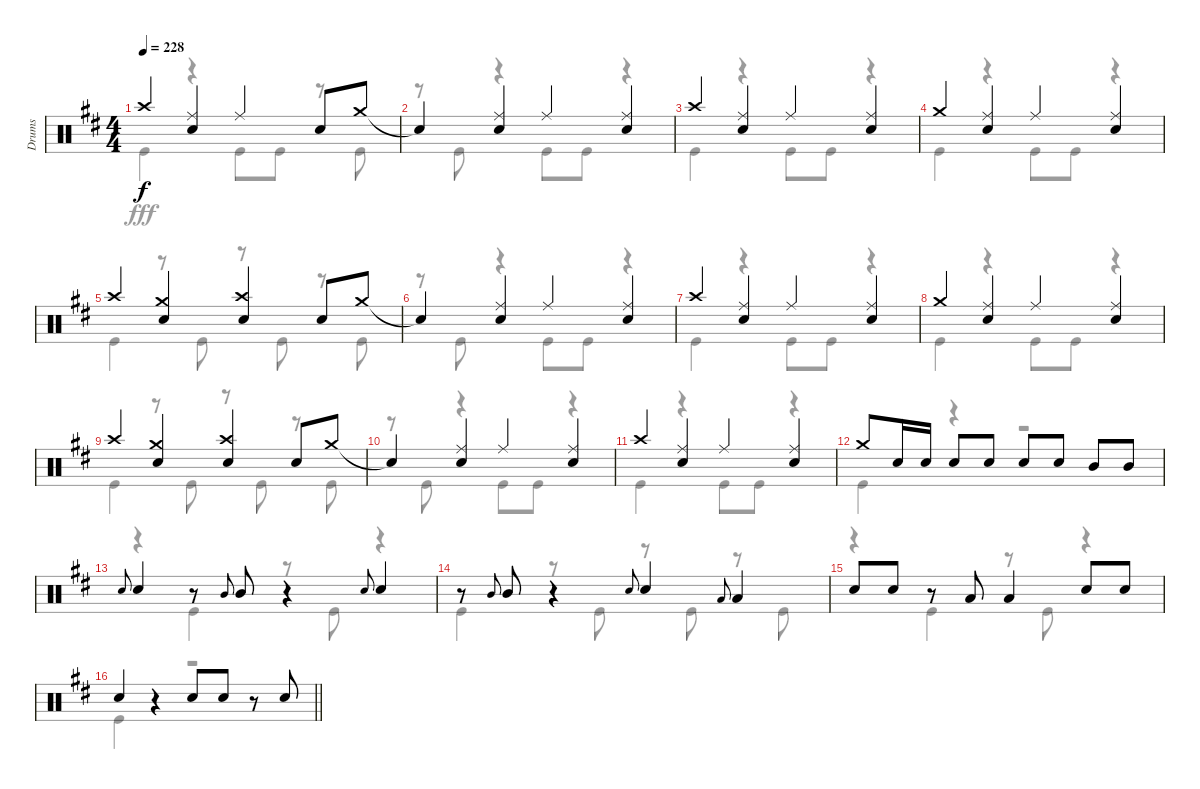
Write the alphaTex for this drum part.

\track ("Drums" "Drums") {instrument percussion}
\staff {score}
\articulation defaults
\voice
\ts (4 4)
\tempo 228
\clef neutral
\ks d "Crash high (hit)".4{dy f}
("Ride (middle)" "Snare (hit) 2").4 "Ride (middle)".4 "Snare (hit) 2".8 "Crash medium (hit)".8 |
"Snare (hit)"{t}.4 ("Ride (middle)" "Snare (hit) 2").4 "Ride (middle)".4 ("Ride (middle)" "Snare (hit) 2").4 |
"Crash high (hit)".4 ("Ride (middle)" "Snare (hit) 2").4 "Ride (middle)".4 ("Ride (middle)" "Snare (hit) 2").4 |
"Crash medium (hit)".4 ("Ride (middle)" "Snare (hit) 2").4 "Ride (middle)".4 ("Ride (middle)" "Snare (hit) 2").4 |
"Crash high (hit)".4 ("Crash medium (hit)" "Snare (hit) 2").4 ("Crash high (hit)" "Snare (hit) 2").4 "Snare (hit) 2".8 "Crash medium (hit)".8 |
"Snare (hit)"{t}.4 ("Ride (middle)" "Snare (hit) 2").4 "Ride (middle)".4 ("Ride (middle)" "Snare (hit) 2").4 |
"Crash high (hit)".4 ("Ride (middle)" "Snare (hit) 2").4 "Ride (middle)".4 ("Ride (middle)" "Snare (hit) 2").4 |
"Crash medium (hit)".4 ("Ride (middle)" "Snare (hit) 2").4 "Ride (middle)".4 ("Ride (middle)" "Snare (hit) 2").4 |
"Crash high (hit)".4 ("Crash medium (hit)" "Snare (hit) 2").4 ("Crash high (hit)" "Snare (hit) 2").4 "Snare (hit) 2".8 "Crash medium (hit)".8 |
"Snare (hit)"{t}.4 ("Ride (middle)" "Snare (hit) 2").4 "Ride (middle)".4 ("Ride (middle)" "Snare (hit) 2").4 |
"Crash high (hit)".4 ("Ride (middle)" "Snare (hit) 2").4 "Ride (middle)".4 ("Ride (middle)" "Snare (hit) 2").4 |
"Crash medium (hit)".8 "Snare (hit) 2".16 "Snare (hit) 2".16 "Snare (hit) 2".8 "Snare (hit) 2".8 "Snare (hit) 2".8 "Snare (hit) 2".8 "Mid Tom (hit)".8 "Mid Tom (hit)".8 |
"Snare (hit) 2".8{gr onbeat} "Snare (hit) 2".4 r.8 "Mid Tom (hit)".8{gr onbeat} "Mid Tom (hit)".8 r.4 "Snare (hit) 2".8{gr onbeat} "Snare (hit) 2".4 |
r.8 "Mid Tom (hit)".8{gr onbeat} "Mid Tom (hit)".8 r.4 "Snare (hit) 2".8{gr onbeat} "Snare (hit) 2".4 "Low Tom (hit)".8{gr onbeat} "Low Tom (hit)".4 |
"Snare (hit) 2".8 "Snare (hit) 2".8 r.8 "Low Tom (hit)".8 "Low Tom (hit)".4 "Snare (hit) 2".8 "Snare (hit) 2".8 |
\barLineRight lightlight "Snare (hit) 2".4
r.4 "Snare (hit) 2".8 "Snare (hit) 2".8 r.8 "Snare (hit) 2".8
\voice
\clef neutral
\ottava regular
\simile none
\ks d "Kick (hit)".4{dy fff}
r.4 "Kick (hit)".8 "Kick (hit)".8 r.8 "Kick (hit)".8 |
r.8 "Kick (hit)".8 r.4 "Kick (hit)".8 "Kick (hit)".8 r.4 |
"Kick (hit)".4 r.4 "Kick (hit)".8 "Kick (hit)".8 r.4 |
"Kick (hit)".4 r.4 "Kick (hit)".8 "Kick (hit)".8 r.4 |
"Kick (hit)".4 r.8 "Kick (hit)".8 r.8 "Kick (hit)".8 r.8 "Kick (hit)".8 |
r.8 "Kick (hit)".8 r.4 "Kick (hit)".8 "Kick (hit)".8 r.4 |
"Kick (hit)".4 r.4 "Kick (hit)".8 "Kick (hit)".8 r.4 |
"Kick (hit)".4 r.4 "Kick (hit)".8 "Kick (hit)".8 r.4 |
"Kick (hit)".4 r.8 "Kick (hit)".8 r.8 "Kick (hit)".8 r.8 "Kick (hit)".8 |
r.8 "Kick (hit)".8 r.4 "Kick (hit)".8 "Kick (hit)".8 r.4 |
"Kick (hit)".4 r.4 "Kick (hit)".8 "Kick (hit)".8 r.4 |
"Kick (hit)".4 r.4 r.2 |
r.4 "Kick (hit)".4 r.8 "Kick (hit)".8 r.4 |
"Kick (hit)".4 r.8 "Kick (hit)".8 r.8 "Kick (hit)".8 r.8 "Kick (hit)".8 |
r.4 "Kick (hit)".4 r.8 "Kick (hit)".8 r.4 |
\barLineRight lightlight "Kick (hit)".4
r.4 r.2
